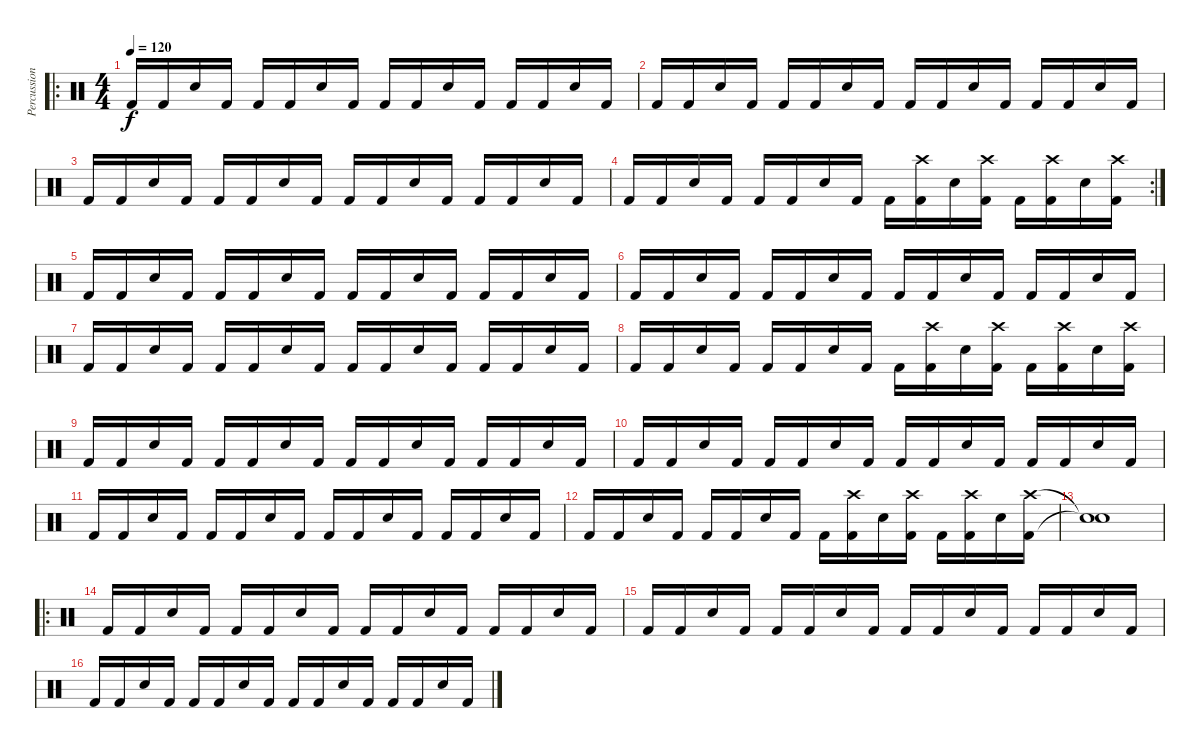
\track ("Percussion" "Percussion") {instrument percussion}
\staff {score}
\articulation defaults
\ro
\ts (4 4)
\tempo 120
\clef neutral
\ks c "Kick (hit) 2".16{dy f} "Kick (hit) 2".16 "Snare (hit) 2".16 "Kick (hit) 2".16 "Kick (hit) 2".16 "Kick (hit) 2".16 "Snare (hit) 2".16 "Kick (hit) 2".16 "Kick (hit) 2".16 "Kick (hit) 2".16 "Snare (hit) 2".16 "Kick (hit) 2".16 "Kick (hit) 2".16 "Kick (hit) 2".16 "Snare (hit) 2".16 "Kick (hit) 2".16
|
"Kick (hit) 2".16 "Kick (hit) 2".16 "Snare (hit) 2".16 "Kick (hit) 2".16 "Kick (hit) 2".16 "Kick (hit) 2".16 "Snare (hit) 2".16 "Kick (hit) 2".16 "Kick (hit) 2".16 "Kick (hit) 2".16 "Snare (hit) 2".16 "Kick (hit) 2".16 "Kick (hit) 2".16 "Kick (hit) 2".16 "Snare (hit) 2".16 "Kick (hit) 2".16 |
"Kick (hit) 2".16 "Kick (hit) 2".16 "Snare (hit) 2".16 "Kick (hit) 2".16 "Kick (hit) 2".16 "Kick (hit) 2".16 "Snare (hit) 2".16 "Kick (hit) 2".16 "Kick (hit) 2".16 "Kick (hit) 2".16 "Snare (hit) 2".16 "Kick (hit) 2".16 "Kick (hit) 2".16 "Kick (hit) 2".16 "Snare (hit) 2".16 "Kick (hit) 2".16 |
\rc 2 "Kick (hit) 2".16 "Kick (hit) 2".16 "Snare (hit) 2".16 "Kick (hit) 2".16 "Kick (hit) 2".16 "Kick (hit) 2".16 "Snare (hit) 2".16 "Kick (hit) 2".16 "Kick (hit) 2".16
("Crash high (hit)" "Kick (hit) 2").16 "Snare (hit) 2".16 ("Crash high (hit)" "Kick (hit) 2").16 "Kick (hit) 2".16 ("Crash high (hit)" "Kick (hit) 2").16 "Snare (hit) 2".16 ("Crash high (hit)" "Kick (hit) 2").16 |
"Kick (hit) 2".16 "Kick (hit) 2".16 "Snare (hit) 2".16 "Kick (hit) 2".16 "Kick (hit) 2".16 "Kick (hit) 2".16 "Snare (hit) 2".16 "Kick (hit) 2".16 "Kick (hit) 2".16 "Kick (hit) 2".16 "Snare (hit) 2".16 "Kick (hit) 2".16 "Kick (hit) 2".16 "Kick (hit) 2".16 "Snare (hit) 2".16 "Kick (hit) 2".16 |
"Kick (hit) 2".16 "Kick (hit) 2".16 "Snare (hit) 2".16 "Kick (hit) 2".16 "Kick (hit) 2".16 "Kick (hit) 2".16 "Snare (hit) 2".16 "Kick (hit) 2".16 "Kick (hit) 2".16 "Kick (hit) 2".16 "Snare (hit) 2".16 "Kick (hit) 2".16 "Kick (hit) 2".16 "Kick (hit) 2".16 "Snare (hit) 2".16 "Kick (hit) 2".16 |
"Kick (hit) 2".16 "Kick (hit) 2".16 "Snare (hit) 2".16 "Kick (hit) 2".16 "Kick (hit) 2".16 "Kick (hit) 2".16 "Snare (hit) 2".16 "Kick (hit) 2".16 "Kick (hit) 2".16 "Kick (hit) 2".16 "Snare (hit) 2".16 "Kick (hit) 2".16 "Kick (hit) 2".16 "Kick (hit) 2".16 "Snare (hit) 2".16 "Kick (hit) 2".16 |
"Kick (hit) 2".16 "Kick (hit) 2".16 "Snare (hit) 2".16 "Kick (hit) 2".16 "Kick (hit) 2".16 "Kick (hit) 2".16 "Snare (hit) 2".16 "Kick (hit) 2".16 "Kick (hit) 2".16 ("Crash high (hit)" "Kick (hit) 2").16 "Snare (hit) 2".16 ("Crash high (hit)" "Kick (hit) 2").16 "Kick (hit) 2".16 ("Crash high (hit)" "Kick (hit) 2").16 "Snare (hit) 2".16 ("Crash high (hit)" "Kick (hit) 2").16 |
"Kick (hit) 2".16 "Kick (hit) 2".16 "Snare (hit) 2".16 "Kick (hit) 2".16 "Kick (hit) 2".16 "Kick (hit) 2".16 "Snare (hit) 2".16 "Kick (hit) 2".16 "Kick (hit) 2".16 "Kick (hit) 2".16 "Snare (hit) 2".16 "Kick (hit) 2".16 "Kick (hit) 2".16 "Kick (hit) 2".16 "Snare (hit) 2".16 "Kick (hit) 2".16 |
"Kick (hit) 2".16 "Kick (hit) 2".16 "Snare (hit) 2".16 "Kick (hit) 2".16 "Kick (hit) 2".16 "Kick (hit) 2".16 "Snare (hit) 2".16 "Kick (hit) 2".16 "Kick (hit) 2".16 "Kick (hit) 2".16 "Snare (hit) 2".16 "Kick (hit) 2".16 "Kick (hit) 2".16 "Kick (hit) 2".16 "Snare (hit) 2".16 "Kick (hit) 2".16 |
"Kick (hit) 2".16 "Kick (hit) 2".16 "Snare (hit) 2".16 "Kick (hit) 2".16 "Kick (hit) 2".16 "Kick (hit) 2".16 "Snare (hit) 2".16 "Kick (hit) 2".16 "Kick (hit) 2".16 "Kick (hit) 2".16 "Snare (hit) 2".16 "Kick (hit) 2".16 "Kick (hit) 2".16 "Kick (hit) 2".16 "Snare (hit) 2".16 "Kick (hit) 2".16 |
"Kick (hit) 2".16 "Kick (hit) 2".16 "Snare (hit) 2".16 "Kick (hit) 2".16 "Kick (hit) 2".16 "Kick (hit) 2".16 "Snare (hit) 2".16 "Kick (hit) 2".16 "Kick (hit) 2".16 ("Crash high (hit)" "Kick (hit) 2").16 "Snare (hit) 2".16 ("Crash high (hit)" "Kick (hit) 2").16 "Kick (hit) 2".16 ("Crash high (hit)" "Kick (hit) 2").16 "Snare (hit) 2".16 ("Crash high (hit)" "Kick (hit) 2").16 |
("Snare (hit)"{t} "Snare (hit)"{t}).1 |
\ro "Kick (hit) 2".16 "Kick (hit) 2".16 "Snare (hit) 2".16 "Kick (hit) 2".16 "Kick (hit) 2".16 "Kick (hit) 2".16 "Snare (hit) 2".16 "Kick (hit) 2".16 "Kick (hit) 2".16 "Kick (hit) 2".16 "Snare (hit) 2".16 "Kick (hit) 2".16 "Kick (hit) 2".16 "Kick (hit) 2".16 "Snare (hit) 2".16 "Kick (hit) 2".16
|
"Kick (hit) 2".16 "Kick (hit) 2".16 "Snare (hit) 2".16 "Kick (hit) 2".16 "Kick (hit) 2".16 "Kick (hit) 2".16 "Snare (hit) 2".16 "Kick (hit) 2".16 "Kick (hit) 2".16 "Kick (hit) 2".16 "Snare (hit) 2".16 "Kick (hit) 2".16 "Kick (hit) 2".16 "Kick (hit) 2".16 "Snare (hit) 2".16 "Kick (hit) 2".16 |
"Kick (hit) 2".16 "Kick (hit) 2".16 "Snare (hit) 2".16 "Kick (hit) 2".16 "Kick (hit) 2".16 "Kick (hit) 2".16 "Snare (hit) 2".16 "Kick (hit) 2".16 "Kick (hit) 2".16 "Kick (hit) 2".16 "Snare (hit) 2".16 "Kick (hit) 2".16 "Kick (hit) 2".16 "Kick (hit) 2".16 "Snare (hit) 2".16 "Kick (hit) 2".16
